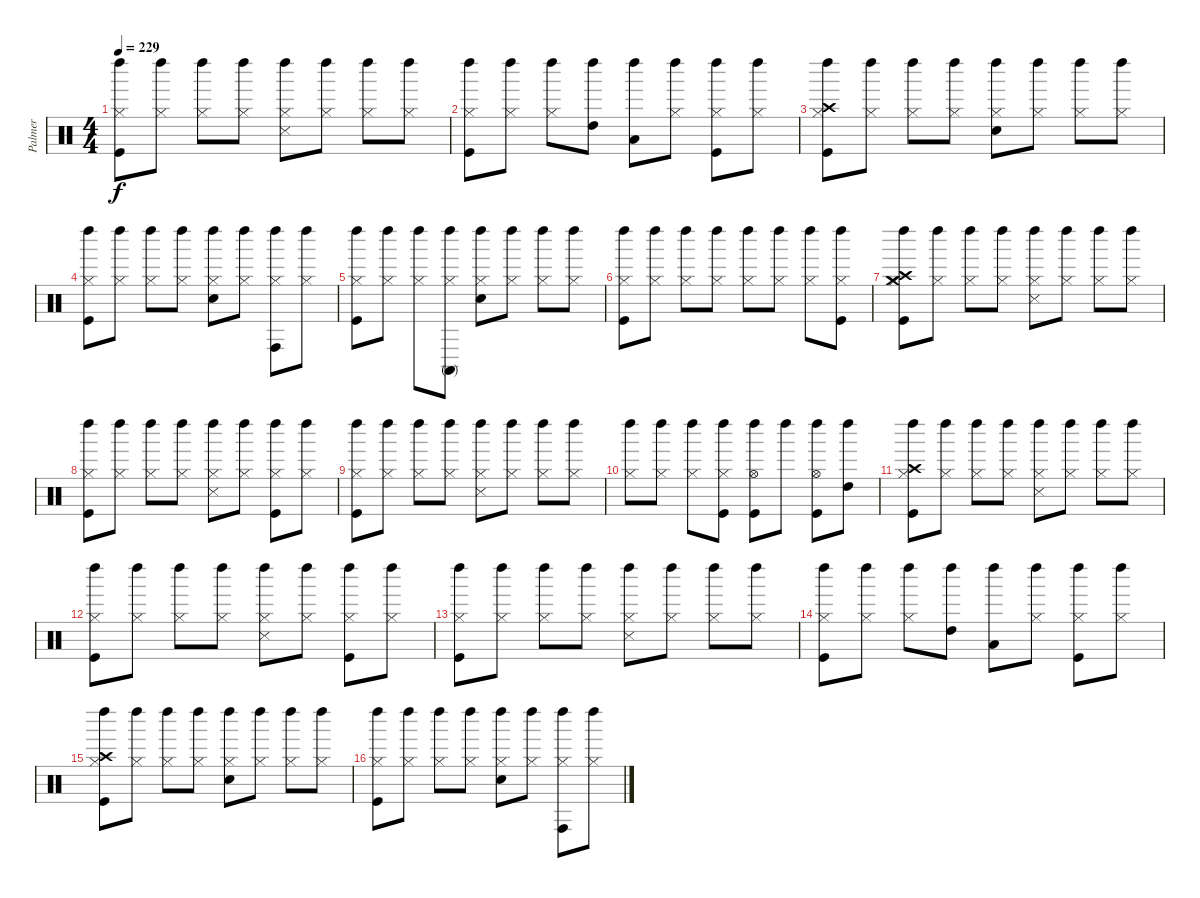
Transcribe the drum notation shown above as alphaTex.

\track ("Palmer" "Palmer") {instrument percussion}
\staff {score}
\articulation defaults
\ts (4 4)
\tempo 229
\clef neutral
\ks c
("Kick (hit)" "Hi-Hat (closed)" "Left Maraca (hit)").8{dy f} ("Hi-Hat (closed)" "Left Maraca (hit)").8 ("Hi-Hat (closed)" "Left Maraca (hit)").8 ("Hi-Hat (closed)" "Left Maraca (hit)").8 ("Hi-Hat (closed)" "Snare (side stick) 3" "Left Maraca (hit)").8 ("Hi-Hat (closed)" "Left Maraca (hit)").8 ("Hi-Hat (closed)" "Left Maraca (hit)").8 ("Hi-Hat (closed)" "Left Maraca (hit)").8 |
("Kick (hit)" "Hi-Hat (closed)" "Left Maraca (hit)").8 ("Hi-Hat (closed)" "Left Maraca (hit)").8 ("Hi-Hat (closed)" "Left Maraca (hit)").8 ("High Tom (hit)" "Left Maraca (hit)").8 ("Low Tom (hit)" "Left Maraca (hit)").8 ("Hi-Hat (closed)" "Left Maraca (hit)").8 ("Kick (hit)" "Hi-Hat (closed)" "Left Maraca (hit)").8 ("Hi-Hat (closed)" "Left Maraca (hit)").8 |
("Kick (hit)" "Hi-Hat (closed)" "Crash high (hit)" "Left Maraca (hit)").8 ("Hi-Hat (closed)" "Left Maraca (hit)").8 ("Hi-Hat (closed)" "Left Maraca (hit)").8 ("Hi-Hat (closed)" "Left Maraca (hit)").8 ("Snare (hit) 2" "Hi-Hat (closed)" "Left Maraca (hit)").8 ("Hi-Hat (closed)" "Left Maraca (hit)").8 ("Hi-Hat (closed)" "Left Maraca (hit)").8 ("Hi-Hat (closed)" "Left Maraca (hit)").8 |
("Kick (hit)" "Hi-Hat (closed)" "Left Maraca (hit)").8 ("Hi-Hat (closed)" "Left Maraca (hit)").8 ("Hi-Hat (closed)" "Left Maraca (hit)").8 ("Hi-Hat (closed)" "Left Maraca (hit)").8 ("Snare (hit) 2" "Hi-Hat (closed)" "Left Maraca (hit)").8 ("Hi-Hat (closed)" "Left Maraca (hit)").8 ("Hi-Hat (closed)" "Conga high (hit)" "Left Maraca (hit)").8 ("Hi-Hat (closed)" "Left Maraca (hit)").8 |
("Kick (hit)" "Hi-Hat (closed)" "Left Maraca (hit)").8 ("Hi-Hat (closed)" "Left Maraca (hit)").8 ("Hi-Hat (closed)" "Left Maraca (hit)").8 ("Hi-Hat (closed)" "Conga high (mute)" "Left Maraca (hit)").8 ("Snare (hit) 2" "Hi-Hat (closed)" "Left Maraca (hit)").8 ("Hi-Hat (closed)" "Left Maraca (hit)").8 ("Hi-Hat (closed)" "Left Maraca (hit)").8 ("Hi-Hat (closed)" "Left Maraca (hit)").8 |
("Kick (hit)" "Hi-Hat (closed)" "Left Maraca (hit)").8 ("Hi-Hat (closed)" "Left Maraca (hit)").8 ("Hi-Hat (closed)" "Left Maraca (hit)").8 ("Hi-Hat (closed)" "Left Maraca (hit)").8 ("Hi-Hat (closed)" "Left Maraca (hit)").8 ("Hi-Hat (closed)" "Left Maraca (hit)").8 ("Hi-Hat (closed)" "Left Maraca (hit)").8 ("Kick (hit)" "Hi-Hat (closed)" "Left Maraca (hit)").8 |
("Crash medium (hit)" "Kick (hit)" "Hi-Hat (closed)" "Crash high (hit)" "Left Maraca (hit)").8 ("Hi-Hat (closed)" "Left Maraca (hit)").8 ("Hi-Hat (closed)" "Left Maraca (hit)").8 ("Hi-Hat (closed)" "Left Maraca (hit)").8 ("Hi-Hat (closed)" "Snare (side stick) 3" "Left Maraca (hit)").8 ("Hi-Hat (closed)" "Left Maraca (hit)").8 ("Hi-Hat (closed)" "Left Maraca (hit)").8 ("Hi-Hat (closed)" "Left Maraca (hit)").8 |
("Kick (hit)" "Hi-Hat (closed)" "Left Maraca (hit)").8 ("Hi-Hat (closed)" "Left Maraca (hit)").8 ("Hi-Hat (closed)" "Left Maraca (hit)").8 ("Hi-Hat (closed)" "Left Maraca (hit)").8 ("Hi-Hat (closed)" "Snare (side stick) 3" "Left Maraca (hit)").8 ("Hi-Hat (closed)" "Left Maraca (hit)").8 ("Kick (hit)" "Hi-Hat (closed)" "Left Maraca (hit)").8 ("Hi-Hat (closed)" "Left Maraca (hit)").8 |
("Kick (hit)" "Hi-Hat (closed)" "Left Maraca (hit)").8 ("Hi-Hat (closed)" "Left Maraca (hit)").8 ("Hi-Hat (closed)" "Left Maraca (hit)").8 ("Hi-Hat (closed)" "Left Maraca (hit)").8 ("Hi-Hat (closed)" "Snare (side stick) 3" "Left Maraca (hit)").8 ("Hi-Hat (closed)" "Left Maraca (hit)").8 ("Hi-Hat (closed)" "Left Maraca (hit)").8 ("Hi-Hat (closed)" "Left Maraca (hit)").8 |
("Hi-Hat (closed)" "Left Maraca (hit)").8 ("Hi-Hat (closed)" "Left Maraca (hit)").8 ("Hi-Hat (closed)" "Left Maraca (hit)").8 ("Kick (hit)" "Hi-Hat (closed)" "Left Maraca (hit)").8 ("Kick (hit)" "Hi-Hat (open)" "Left Maraca (hit)").8 "Left Maraca (hit)".8 ("Kick (hit)" "Hi-Hat (open)" "Left Maraca (hit)").8 ("High Tom (hit)" "Left Maraca (hit)").8 |
("Kick (hit)" "Hi-Hat (closed)" "Crash high (hit)" "Left Maraca (hit)").8 ("Hi-Hat (closed)" "Left Maraca (hit)").8 ("Hi-Hat (closed)" "Left Maraca (hit)").8 ("Hi-Hat (closed)" "Left Maraca (hit)").8 ("Hi-Hat (closed)" "Snare (side stick) 3" "Left Maraca (hit)").8 ("Hi-Hat (closed)" "Left Maraca (hit)").8 ("Hi-Hat (closed)" "Left Maraca (hit)").8 ("Hi-Hat (closed)" "Left Maraca (hit)").8 |
("Kick (hit)" "Hi-Hat (closed)" "Left Maraca (hit)").8 ("Hi-Hat (closed)" "Left Maraca (hit)").8 ("Hi-Hat (closed)" "Left Maraca (hit)").8 ("Hi-Hat (closed)" "Left Maraca (hit)").8 ("Hi-Hat (closed)" "Snare (side stick) 3" "Left Maraca (hit)").8 ("Hi-Hat (closed)" "Left Maraca (hit)").8 ("Kick (hit)" "Hi-Hat (closed)" "Left Maraca (hit)").8 ("Hi-Hat (closed)" "Left Maraca (hit)").8 |
("Kick (hit)" "Hi-Hat (closed)" "Left Maraca (hit)").8 ("Hi-Hat (closed)" "Left Maraca (hit)").8 ("Hi-Hat (closed)" "Left Maraca (hit)").8 ("Hi-Hat (closed)" "Left Maraca (hit)").8 ("Hi-Hat (closed)" "Snare (side stick) 3" "Left Maraca (hit)").8 ("Hi-Hat (closed)" "Left Maraca (hit)").8 ("Hi-Hat (closed)" "Left Maraca (hit)").8 ("Hi-Hat (closed)" "Left Maraca (hit)").8 |
("Kick (hit)" "Hi-Hat (closed)" "Left Maraca (hit)").8 ("Hi-Hat (closed)" "Left Maraca (hit)").8 ("Hi-Hat (closed)" "Left Maraca (hit)").8 ("High Tom (hit)" "Left Maraca (hit)").8 ("Low Tom (hit)" "Left Maraca (hit)").8 ("Hi-Hat (closed)" "Left Maraca (hit)").8 ("Kick (hit)" "Hi-Hat (closed)" "Left Maraca (hit)").8 ("Hi-Hat (closed)" "Left Maraca (hit)").8 |
("Kick (hit)" "Hi-Hat (closed)" "Crash high (hit)" "Left Maraca (hit)").8 ("Hi-Hat (closed)" "Left Maraca (hit)").8 ("Hi-Hat (closed)" "Left Maraca (hit)").8 ("Hi-Hat (closed)" "Left Maraca (hit)").8 ("Snare (hit) 2" "Hi-Hat (closed)" "Left Maraca (hit)").8 ("Hi-Hat (closed)" "Left Maraca (hit)").8 ("Hi-Hat (closed)" "Left Maraca (hit)").8 ("Hi-Hat (closed)" "Left Maraca (hit)").8 |
("Kick (hit)" "Hi-Hat (closed)" "Left Maraca (hit)").8 ("Hi-Hat (closed)" "Left Maraca (hit)").8 ("Hi-Hat (closed)" "Left Maraca (hit)").8 ("Hi-Hat (closed)" "Left Maraca (hit)").8 ("Snare (hit) 2" "Hi-Hat (closed)" "Left Maraca (hit)").8 ("Hi-Hat (closed)" "Left Maraca (hit)").8 ("Hi-Hat (closed)" "Conga high (hit)" "Left Maraca (hit)").8 ("Hi-Hat (closed)" "Left Maraca (hit)").8
